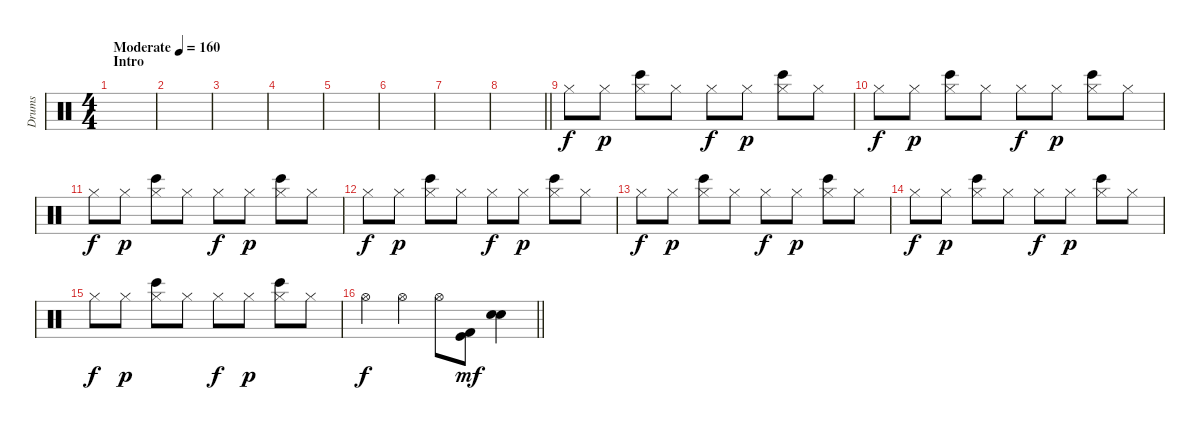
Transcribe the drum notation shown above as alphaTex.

\track ("Drums" "Drums") {instrument percussion}
\staff {score}
\articulation defaults
\ts (4 4)
\section ("" "Intro")
\tempo (160 "Moderate")
\clef neutral
\ks c
|
|
|
|
|
|
|
\barLineRight lightlight
|
"Hi-Hat (closed)".8 "Hi-Hat (closed)".8{dy p} ("Hi-Hat (closed)" "Bongo High (hit)").8 "Hi-Hat (closed)".8 "Hi-Hat (closed)".8{dy f} "Hi-Hat (closed)".8{dy p} ("Hi-Hat (closed)" "Bongo High (hit)").8 "Hi-Hat (closed)".8 |
"Hi-Hat (closed)".8{dy f} "Hi-Hat (closed)".8{dy p} ("Hi-Hat (closed)" "Bongo High (hit)").8 "Hi-Hat (closed)".8 "Hi-Hat (closed)".8{dy f} "Hi-Hat (closed)".8{dy p} ("Hi-Hat (closed)" "Bongo High (hit)").8 "Hi-Hat (closed)".8 |
"Hi-Hat (closed)".8{dy f} "Hi-Hat (closed)".8{dy p} ("Hi-Hat (closed)" "Bongo High (hit)").8 "Hi-Hat (closed)".8 "Hi-Hat (closed)".8{dy f} "Hi-Hat (closed)".8{dy p} ("Hi-Hat (closed)" "Bongo High (hit)").8 "Hi-Hat (closed)".8 |
"Hi-Hat (closed)".8{dy f} "Hi-Hat (closed)".8{dy p} ("Hi-Hat (closed)" "Bongo High (hit)").8 "Hi-Hat (closed)".8 "Hi-Hat (closed)".8{dy f} "Hi-Hat (closed)".8{dy p} ("Hi-Hat (closed)" "Bongo High (hit)").8 "Hi-Hat (closed)".8 |
"Hi-Hat (closed)".8{dy f} "Hi-Hat (closed)".8{dy p} ("Hi-Hat (closed)" "Bongo High (hit)").8 "Hi-Hat (closed)".8 "Hi-Hat (closed)".8{dy f} "Hi-Hat (closed)".8{dy p} ("Hi-Hat (closed)" "Bongo High (hit)").8 "Hi-Hat (closed)".8 |
"Hi-Hat (closed)".8{dy f} "Hi-Hat (closed)".8{dy p} ("Hi-Hat (closed)" "Bongo High (hit)").8 "Hi-Hat (closed)".8 "Hi-Hat (closed)".8{dy f} "Hi-Hat (closed)".8{dy p} ("Hi-Hat (closed)" "Bongo High (hit)").8 "Hi-Hat (closed)".8 |
"Hi-Hat (closed)".8{dy f} "Hi-Hat (closed)".8{dy p} ("Hi-Hat (closed)" "Bongo High (hit)").8 "Hi-Hat (closed)".8 "Hi-Hat (closed)".8{dy f} "Hi-Hat (closed)".8{dy p} ("Hi-Hat (closed)" "Bongo High (hit)").8 "Hi-Hat (closed)".8 |
\barLineRight lightlight "Hi-Hat (open)".4{dy f} "Hi-Hat (open)".4 "Hi-Hat (open)".8
("Kick (hit) 2" "Kick (hit)").8{dy mf} ("Snare (hit) 2" "Electric Snare (hit)").4
